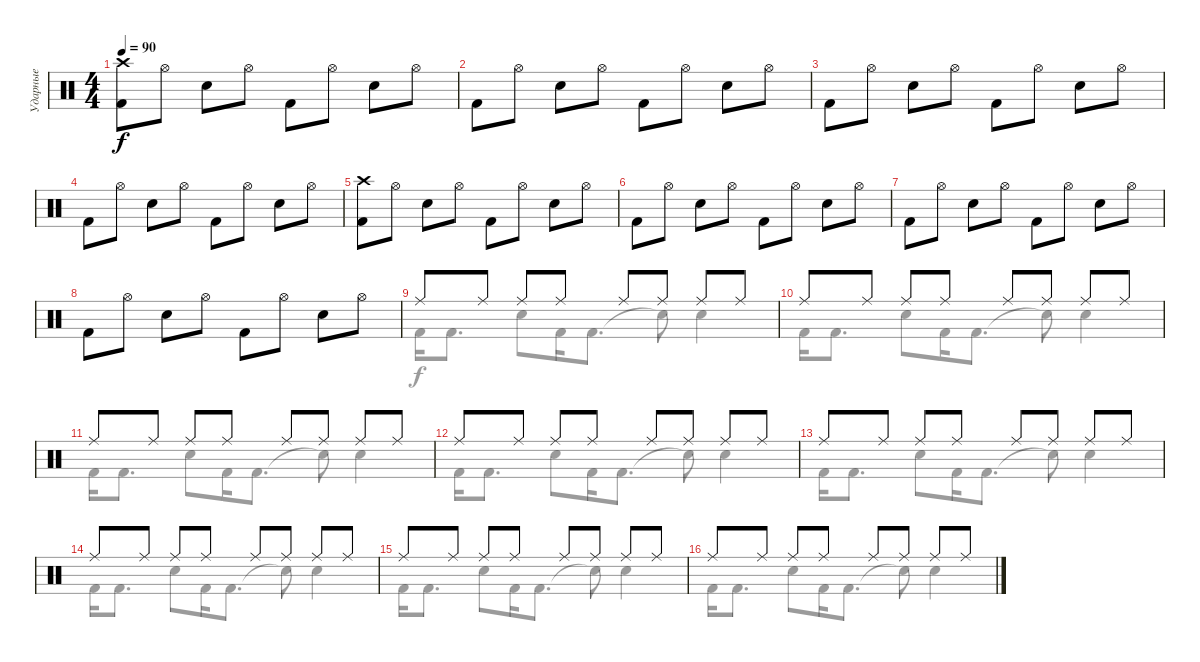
\track ("Ударные" "Ударные") {instrument percussion}
\staff {score}
\articulation defaults
\voice
\ts (4 4)
\tempo 90
\clef neutral
\ks c
("Crash high (hit)" "Kick (hit) 2").8{dy f} "Hi-Hat (open)".8 "Electric Snare (hit)".8 "Hi-Hat (open)".8 "Kick (hit) 2".8 "Hi-Hat (open)".8 "Electric Snare (hit)".8 "Hi-Hat (open)".8 |
"Kick (hit) 2".8 "Hi-Hat (open)".8 "Electric Snare (hit)".8 "Hi-Hat (open)".8 "Kick (hit) 2".8 "Hi-Hat (open)".8 "Electric Snare (hit)".8 "Hi-Hat (open)".8 |
"Kick (hit) 2".8 "Hi-Hat (open)".8 "Electric Snare (hit)".8 "Hi-Hat (open)".8 "Kick (hit) 2".8 "Hi-Hat (open)".8 "Electric Snare (hit)".8 "Hi-Hat (open)".8 |
"Kick (hit) 2".8 "Hi-Hat (open)".8 "Electric Snare (hit)".8 "Hi-Hat (open)".8 "Kick (hit) 2".8 "Hi-Hat (open)".8 "Electric Snare (hit)".8 "Hi-Hat (open)".8 |
("Crash high (hit)" "Kick (hit) 2").8 "Hi-Hat (open)".8 "Electric Snare (hit)".8 "Hi-Hat (open)".8 "Kick (hit) 2".8 "Hi-Hat (open)".8 "Electric Snare (hit)".8 "Hi-Hat (open)".8 |
"Kick (hit) 2".8 "Hi-Hat (open)".8 "Electric Snare (hit)".8 "Hi-Hat (open)".8 "Kick (hit) 2".8 "Hi-Hat (open)".8 "Electric Snare (hit)".8 "Hi-Hat (open)".8 |
"Kick (hit) 2".8 "Hi-Hat (open)".8 "Electric Snare (hit)".8 "Hi-Hat (open)".8 "Kick (hit) 2".8 "Hi-Hat (open)".8 "Electric Snare (hit)".8 "Hi-Hat (open)".8 |
"Kick (hit) 2".8 "Hi-Hat (open)".8 "Electric Snare (hit)".8 "Hi-Hat (open)".8 "Kick (hit) 2".8 "Hi-Hat (open)".8 "Electric Snare (hit)".8 "Hi-Hat (open)".8 |
"Ride (middle)".8 "Ride (middle)".8 "Ride (middle)".8 "Ride (middle)".8 "Ride (middle)".8 "Ride (middle)".8 "Ride (middle)".8 "Ride (middle)".8 |
"Ride (middle)".8 "Ride (middle)".8 "Ride (middle)".8 "Ride (middle)".8 "Ride (middle)".8 "Ride (middle)".8 "Ride (middle)".8 "Ride (middle)".8 |
"Ride (middle)".8 "Ride (middle)".8 "Ride (middle)".8 "Ride (middle)".8 "Ride (middle)".8 "Ride (middle)".8 "Ride (middle)".8 "Ride (middle)".8 |
"Ride (middle)".8 "Ride (middle)".8 "Ride (middle)".8 "Ride (middle)".8 "Ride (middle)".8 "Ride (middle)".8 "Ride (middle)".8 "Ride (middle)".8 |
"Ride (middle)".8 "Ride (middle)".8 "Ride (middle)".8 "Ride (middle)".8 "Ride (middle)".8 "Ride (middle)".8 "Ride (middle)".8 "Ride (middle)".8 |
"Ride (middle)".8 "Ride (middle)".8 "Ride (middle)".8 "Ride (middle)".8 "Ride (middle)".8 "Ride (middle)".8 "Ride (middle)".8 "Ride (middle)".8 |
"Ride (middle)".8 "Ride (middle)".8 "Ride (middle)".8 "Ride (middle)".8 "Ride (middle)".8 "Ride (middle)".8 "Ride (middle)".8 "Ride (middle)".8 |
"Ride (middle)".8 "Ride (middle)".8 "Ride (middle)".8 "Ride (middle)".8 "Ride (middle)".8 "Ride (middle)".8 "Ride (middle)".8 "Ride (middle)".8
\voice
\clef neutral
\ottava regular
\simile none
\ks c
|
|
|
|
|
|
|
|
"Kick (hit) 2".16 "Kick (hit) 2".8{d} "Electric Snare (hit)".8 "Kick (hit) 2".16 "Kick (hit) 2".8{d} "Electric Snare (hit)"{t}.8 "Electric Snare (hit)".4 |
"Kick (hit) 2".16 "Kick (hit) 2".8{d} "Electric Snare (hit)".8 "Kick (hit) 2".16 "Kick (hit) 2".8{d} "Electric Snare (hit)"{t}.8 "Electric Snare (hit)".4 |
"Kick (hit) 2".16 "Kick (hit) 2".8{d} "Electric Snare (hit)".8 "Kick (hit) 2".16 "Kick (hit) 2".8{d} "Electric Snare (hit)"{t}.8 "Electric Snare (hit)".4 |
"Kick (hit) 2".16 "Kick (hit) 2".8{d} "Electric Snare (hit)".8 "Kick (hit) 2".16 "Kick (hit) 2".8{d} "Electric Snare (hit)"{t}.8 "Electric Snare (hit)".4 |
"Kick (hit) 2".16 "Kick (hit) 2".8{d} "Electric Snare (hit)".8 "Kick (hit) 2".16 "Kick (hit) 2".8{d} "Electric Snare (hit)"{t}.8 "Electric Snare (hit)".4 |
"Kick (hit) 2".16 "Kick (hit) 2".8{d} "Electric Snare (hit)".8 "Kick (hit) 2".16 "Kick (hit) 2".8{d} "Electric Snare (hit)"{t}.8 "Electric Snare (hit)".4 |
"Kick (hit) 2".16 "Kick (hit) 2".8{d} "Electric Snare (hit)".8 "Kick (hit) 2".16 "Kick (hit) 2".8{d} "Electric Snare (hit)"{t}.8 "Electric Snare (hit)".4 |
"Kick (hit) 2".16 "Kick (hit) 2".8{d} "Electric Snare (hit)".8 "Kick (hit) 2".16 "Kick (hit) 2".8{d} "Electric Snare (hit)"{t}.8 "Electric Snare (hit)".4
